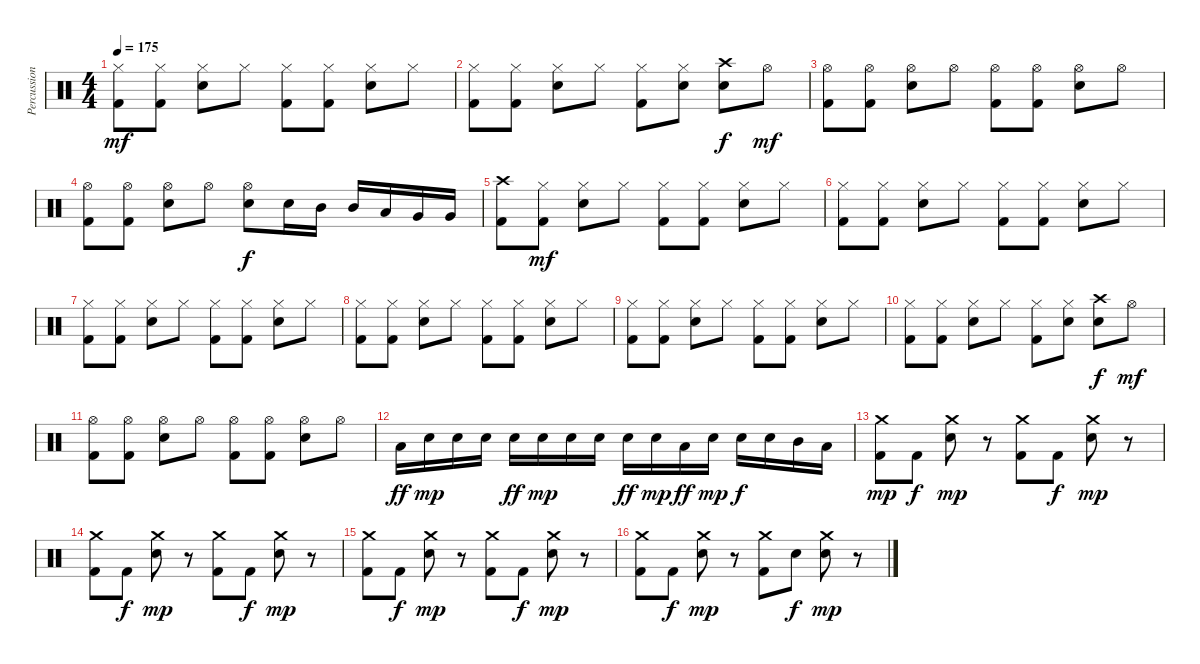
\track ("Percussions" "Percussion") {instrument percussion}
\staff {score}
\articulation defaults
\ts (4 4)
\tempo 175
\clef neutral
\ks c
("Hi-Hat (closed)" "Kick (hit) 2").8{dy mf} ("Hi-Hat (closed)" "Kick (hit) 2").8 ("Hi-Hat (closed)" "Snare (hit) 2").8 "Hi-Hat (closed)".8 ("Hi-Hat (closed)" "Kick (hit) 2").8 ("Hi-Hat (closed)" "Kick (hit) 2").8 ("Hi-Hat (closed)" "Snare (hit) 2").8 "Hi-Hat (closed)".8 |
("Hi-Hat (closed)" "Kick (hit) 2").8 ("Hi-Hat (closed)" "Kick (hit) 2").8 ("Hi-Hat (closed)" "Snare (hit) 2").8 "Hi-Hat (closed)".8 ("Hi-Hat (closed)" "Kick (hit) 2").8 ("Hi-Hat (closed)" "Snare (hit) 2").8 ("Crash high (hit)" "Snare (hit) 2").8{dy f} "Hi-Hat (open)".8{dy mf} |
("Hi-Hat (open)" "Kick (hit) 2").8 ("Hi-Hat (open)" "Kick (hit) 2").8 ("Hi-Hat (open)" "Snare (hit) 2").8 "Hi-Hat (open)".8 ("Hi-Hat (open)" "Kick (hit) 2").8 ("Hi-Hat (open)" "Kick (hit) 2").8 ("Hi-Hat (open)" "Snare (hit) 2").8 "Hi-Hat (open)".8 |
("Hi-Hat (open)" "Kick (hit) 2").8 ("Hi-Hat (open)" "Kick (hit) 2").8 ("Hi-Hat (open)" "Snare (hit) 2").8 "Hi-Hat (open)".8 ("Hi-Hat (open)" "Snare (hit) 2").8{dy f} "Snare (hit) 2".16 "Mid Tom (hit)".16 "Mid Tom (hit)".16 "Low Tom (hit)".16 "Very Low Tom (hit)".16 "Very Low Tom (hit)".16 |
("Crash high (hit)" "Kick (hit) 2").8 ("Hi-Hat (closed)" "Kick (hit) 2").8{dy mf} ("Hi-Hat (closed)" "Snare (hit) 2").8 "Hi-Hat (closed)".8 ("Hi-Hat (closed)" "Kick (hit) 2").8 ("Hi-Hat (closed)" "Kick (hit) 2").8 ("Hi-Hat (closed)" "Snare (hit) 2").8 "Hi-Hat (closed)".8 |
("Hi-Hat (closed)" "Kick (hit) 2").8 ("Hi-Hat (closed)" "Kick (hit) 2").8 ("Hi-Hat (closed)" "Snare (hit) 2").8 "Hi-Hat (closed)".8 ("Hi-Hat (closed)" "Kick (hit) 2").8 ("Hi-Hat (closed)" "Kick (hit) 2").8 ("Hi-Hat (closed)" "Snare (hit) 2").8 "Hi-Hat (closed)".8 |
("Hi-Hat (closed)" "Kick (hit) 2").8 ("Hi-Hat (closed)" "Kick (hit) 2").8 ("Hi-Hat (closed)" "Snare (hit) 2").8 "Hi-Hat (closed)".8 ("Hi-Hat (closed)" "Kick (hit) 2").8 ("Hi-Hat (closed)" "Kick (hit) 2").8 ("Hi-Hat (closed)" "Snare (hit) 2").8 "Hi-Hat (closed)".8 |
("Hi-Hat (closed)" "Kick (hit) 2").8 ("Hi-Hat (closed)" "Kick (hit) 2").8 ("Hi-Hat (closed)" "Snare (hit) 2").8 "Hi-Hat (closed)".8 ("Hi-Hat (closed)" "Kick (hit) 2").8 ("Hi-Hat (closed)" "Kick (hit) 2").8 ("Hi-Hat (closed)" "Snare (hit) 2").8 "Hi-Hat (closed)".8 |
("Hi-Hat (closed)" "Kick (hit) 2").8 ("Hi-Hat (closed)" "Kick (hit) 2").8 ("Hi-Hat (closed)" "Snare (hit) 2").8 "Hi-Hat (closed)".8 ("Hi-Hat (closed)" "Kick (hit) 2").8 ("Hi-Hat (closed)" "Kick (hit) 2").8 ("Hi-Hat (closed)" "Snare (hit) 2").8 "Hi-Hat (closed)".8 |
("Hi-Hat (closed)" "Kick (hit) 2").8 ("Hi-Hat (closed)" "Kick (hit) 2").8 ("Hi-Hat (closed)" "Snare (hit) 2").8 "Hi-Hat (closed)".8 ("Hi-Hat (closed)" "Kick (hit) 2").8 ("Hi-Hat (closed)" "Snare (hit) 2").8 ("Crash high (hit)" "Snare (hit) 2").8{dy f} "Hi-Hat (open)".8{dy mf} |
("Hi-Hat (open)" "Kick (hit) 2").8 ("Hi-Hat (open)" "Kick (hit) 2").8 ("Hi-Hat (open)" "Snare (hit) 2").8 "Hi-Hat (open)".8 ("Hi-Hat (open)" "Kick (hit) 2").8 ("Hi-Hat (open)" "Kick (hit) 2").8 ("Hi-Hat (open)" "Snare (hit) 2").8 "Hi-Hat (open)".8 |
"Low Tom (hit)".16{dy ff} "Snare (hit) 2".16{dy mp} "Snare (hit) 2".16 "Snare (hit) 2".16 "Snare (hit) 2".16{dy ff} "Snare (hit) 2".16{dy mp} "Snare (hit) 2".16 "Snare (hit) 2".16 "Snare (hit) 2".16{dy ff} "Snare (hit) 2".16{dy mp} "Low Tom (hit)".16{dy ff} "Snare (hit) 2".16{dy mp} "Snare (hit) 2".16{dy f} "Snare (hit) 2".16 "Mid Tom (hit)".16 "Low Tom (hit)".16 |
("Crash medium (hit)" "Kick (hit) 2").8{dy mp} "Kick (hit) 2".8{dy f} ("Crash medium (hit)" "Snare (hit) 2").8{dy mp} r.8 ("Crash medium (hit)" "Kick (hit) 2").8 "Kick (hit) 2".8{dy f} ("Crash medium (hit)" "Snare (hit) 2").8{dy mp} r.8 |
("Crash medium (hit)" "Kick (hit) 2").8 "Kick (hit) 2".8{dy f} ("Crash medium (hit)" "Snare (hit) 2").8{dy mp} r.8 ("Crash medium (hit)" "Kick (hit) 2").8 "Kick (hit) 2".8{dy f} ("Crash medium (hit)" "Snare (hit) 2").8{dy mp} r.8 |
("Crash medium (hit)" "Kick (hit) 2").8 "Kick (hit) 2".8{dy f} ("Crash medium (hit)" "Snare (hit) 2").8{dy mp} r.8 ("Crash medium (hit)" "Kick (hit) 2").8 "Kick (hit) 2".8{dy f} ("Crash medium (hit)" "Snare (hit) 2").8{dy mp} r.8 |
("Crash medium (hit)" "Kick (hit) 2").8 "Kick (hit) 2".8{dy f} ("Crash medium (hit)" "Snare (hit) 2").8{dy mp} r.8 ("Crash medium (hit)" "Kick (hit) 2").8 "Snare (hit) 2".8{dy f} ("Crash medium (hit)" "Snare (hit) 2").8{dy mp} r.8
